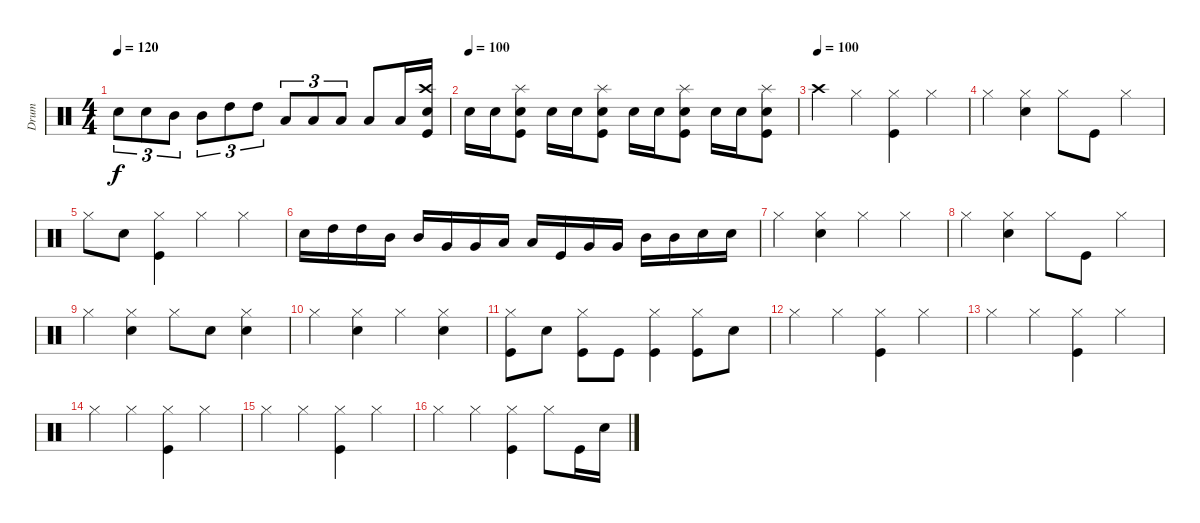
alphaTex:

\track ("Drum" "Drum") {instrument percussion}
\staff {score}
\articulation defaults
\ts (4 4)
\tempo 120
\clef neutral
\ks c "Snare (hit) 2".8{tu (3 2) dy f} "Snare (hit) 2".8{tu (3 2)} "Mid Tom (hit)".8{tu (3 2)} "Mid Tom (hit)".8{tu (3 2)} "High Tom (hit)".8{tu (3 2)} "High Tom (hit)".8{tu (3 2)} "Low Floor Tom (hit)".8{tu (3 2)} "Low Floor Tom (hit)".8{tu (3 2)} "Low Floor Tom (hit)".8{tu (3 2)} "Low Floor Tom (hit)".8 "Low Floor Tom (hit)".16
("Crash high (hit)" "Snare (hit) 2" "Kick (hit)").16 |
\tempo (100)
"Snare (hit) 2".16 "Snare (hit) 2".16 ("Splash (hit)" "Snare (hit) 2" "Kick (hit)").8 "Snare (hit) 2".16 "Snare (hit) 2".16 ("Splash (hit)" "Snare (hit) 2" "Kick (hit)").8 "Snare (hit) 2".16 "Snare (hit) 2".16 ("Splash (hit)" "Snare (hit) 2" "Kick (hit)").8 "Snare (hit) 2".16 "Snare (hit) 2".16 ("Splash (hit)" "Snare (hit) 2" "Kick (hit)").8 |
\tempo (100)
"Crash high (hit)".4 "Hi-Hat (closed)".4 ("Hi-Hat (closed)" "Kick (hit)").4 "Hi-Hat (closed)".4 |
"Hi-Hat (closed)".4 ("Hi-Hat (closed)" "Snare (hit) 2").4 "Hi-Hat (closed)".8 "Kick (hit)".8 "Hi-Hat (closed)".4 |
"Hi-Hat (closed)".8 "Snare (hit) 2".8 ("Hi-Hat (closed)" "Kick (hit)").4 "Hi-Hat (closed)".4 "Hi-Hat (closed)".4 |
"Snare (hit) 2".16 "High Tom (hit)".16 "High Tom (hit)".16 "Mid Tom (hit)".16 "Mid Tom (hit)".16 "Very Low Tom (hit)".16 "Very Low Tom (hit)".16 "Low Floor Tom (hit)".16 "Low Floor Tom (hit)".16 "Kick (hit)".16 "Very Low Tom (hit)".16 "Very Low Tom (hit)".16 "Mid Tom (hit)".16 "Mid Tom (hit)".16 "Snare (hit) 2".16 "Snare (hit) 2".16 |
"Hi-Hat (closed)".4 ("Hi-Hat (closed)" "Snare (hit) 2").4 "Hi-Hat (closed)".4 "Hi-Hat (closed)".4 |
"Hi-Hat (closed)".4 ("Hi-Hat (closed)" "Snare (hit) 2").4 "Hi-Hat (closed)".8 "Kick (hit)".8 "Hi-Hat (closed)".4 |
"Hi-Hat (closed)".4 ("Hi-Hat (closed)" "Snare (hit) 2").4 "Hi-Hat (closed)".8 "Snare (hit) 2".8 ("Hi-Hat (closed)" "Snare (hit) 2").4 |
"Hi-Hat (closed)".4 ("Hi-Hat (closed)" "Snare (hit) 2").4 "Hi-Hat (closed)".4 ("Hi-Hat (closed)" "Snare (hit) 2").4 |
("Hi-Hat (closed)" "Kick (hit)").8 "Snare (hit) 2".8 ("Hi-Hat (closed)" "Kick (hit)").8 "Kick (hit)".8 ("Hi-Hat (closed)" "Kick (hit)").4 ("Hi-Hat (closed)" "Kick (hit)").8 "Snare (hit) 2".8 |
"Hi-Hat (closed)".4 "Hi-Hat (closed)".4 ("Hi-Hat (closed)" "Kick (hit)").4 "Hi-Hat (closed)".4 |
"Hi-Hat (closed)".4 "Hi-Hat (closed)".4 ("Hi-Hat (closed)" "Kick (hit)").4 "Hi-Hat (closed)".4 |
"Hi-Hat (closed)".4 "Hi-Hat (closed)".4 ("Hi-Hat (closed)" "Kick (hit)").4 "Hi-Hat (closed)".4 |
"Hi-Hat (closed)".4 "Hi-Hat (closed)".4 ("Hi-Hat (closed)" "Kick (hit)").4 "Hi-Hat (closed)".4 |
"Hi-Hat (closed)".4 "Hi-Hat (closed)".4 ("Hi-Hat (closed)" "Kick (hit)").4 "Hi-Hat (closed)".8 "Kick (hit)".16 "Snare (hit) 2".16
